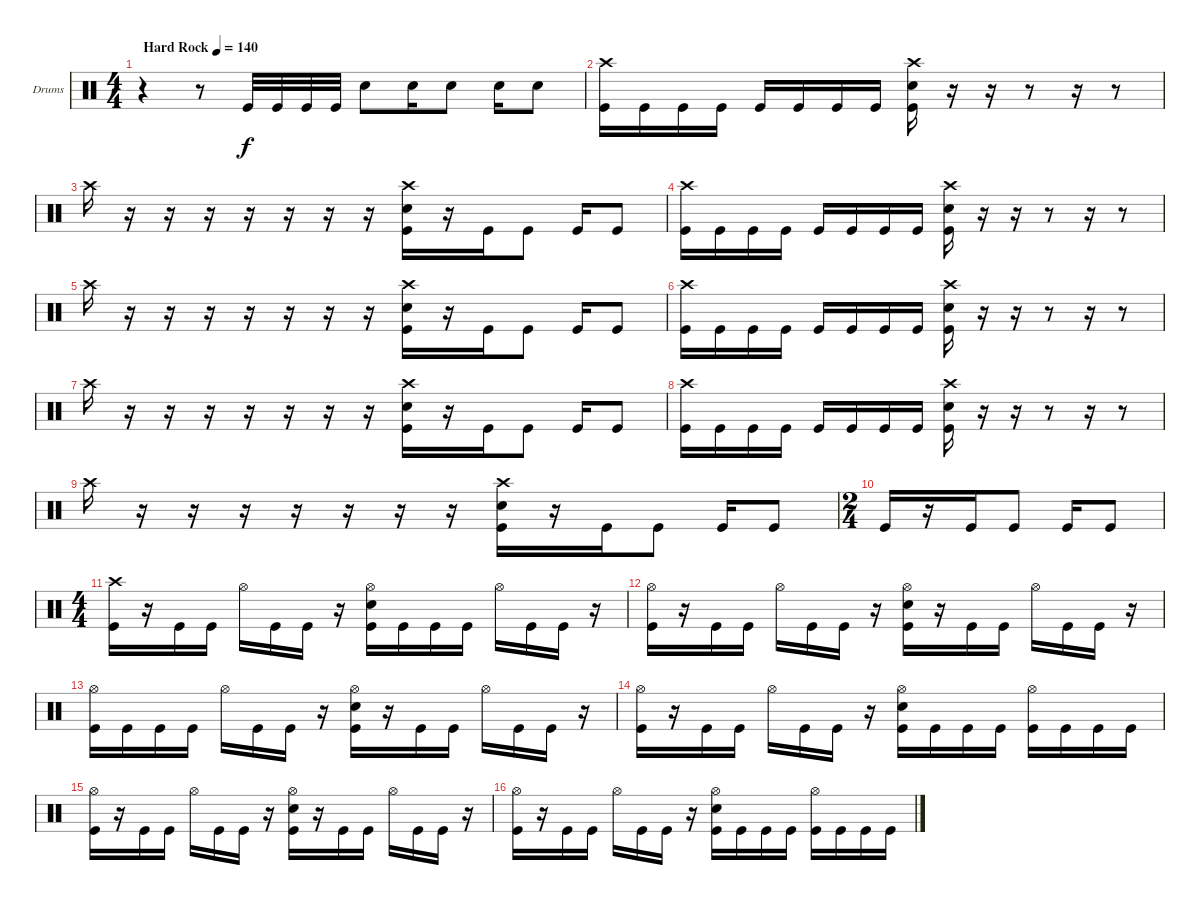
\bracketExtendMode groupsimilarinstruments
\firstSystemTrackNameOrientation horizontal
\otherSystemsTrackNameOrientation horizontal
\track ("Drumkit" "Drums") {instrument percussion}
\staff {score}
\articulation defaults
\ts (4 4)
\beaming (8 2 2 2 2)
\tempo (140 "Hard Rock")
\clef neutral
\ks c
r.4{dy f} r.8 "Kick (hit)".32 "Kick (hit)".32 "Kick (hit)".32 "Kick (hit)".32 "Snare (hit) 2".8 "Snare (hit) 2".16 "Snare (hit) 2".8 "Snare (hit) 2".16 "Snare (hit) 2".8 |
("Crash high (hit)" "Kick (hit)").16 "Kick (hit)".16 "Kick (hit)".16 "Kick (hit)".16 "Kick (hit)".16 "Kick (hit)".16 "Kick (hit)".16 "Kick (hit)".16 ("Crash high (hit)" "Snare (hit) 2" "Kick (hit)").16 r.16 r.16 r.8 r.16 r.8 |
"Crash high (hit)".16 r.16 r.16 r.16 r.16 r.16 r.16 r.16 ("Crash high (hit)" "Snare (hit) 2" "Kick (hit)").16 r.16 "Kick (hit)".16 "Kick (hit)".8 "Kick (hit)".16 "Kick (hit)".8 |
("Crash high (hit)" "Kick (hit)").16 "Kick (hit)".16 "Kick (hit)".16 "Kick (hit)".16 "Kick (hit)".16 "Kick (hit)".16 "Kick (hit)".16 "Kick (hit)".16 ("Crash high (hit)" "Snare (hit) 2" "Kick (hit)").16 r.16 r.16 r.8 r.16 r.8 |
"Crash high (hit)".16 r.16 r.16 r.16 r.16 r.16 r.16 r.16 ("Crash high (hit)" "Snare (hit) 2" "Kick (hit)").16 r.16 "Kick (hit)".16 "Kick (hit)".8 "Kick (hit)".16 "Kick (hit)".8 |
("Crash high (hit)" "Kick (hit)").16 "Kick (hit)".16 "Kick (hit)".16 "Kick (hit)".16 "Kick (hit)".16 "Kick (hit)".16 "Kick (hit)".16 "Kick (hit)".16 ("Crash high (hit)" "Snare (hit) 2" "Kick (hit)").16 r.16 r.16 r.8 r.16 r.8 |
"Crash high (hit)".16 r.16 r.16 r.16 r.16 r.16 r.16 r.16 ("Crash high (hit)" "Snare (hit) 2" "Kick (hit)").16 r.16 "Kick (hit)".16 "Kick (hit)".8 "Kick (hit)".16 "Kick (hit)".8 |
("Crash high (hit)" "Kick (hit)").16 "Kick (hit)".16 "Kick (hit)".16 "Kick (hit)".16 "Kick (hit)".16 "Kick (hit)".16 "Kick (hit)".16 "Kick (hit)".16 ("Crash high (hit)" "Snare (hit) 2" "Kick (hit)").16 r.16 r.16 r.8 r.16 r.8 |
"Crash high (hit)".16 r.16 r.16 r.16 r.16 r.16 r.16 r.16 ("Crash high (hit)" "Snare (hit) 2" "Kick (hit)").16 r.16 "Kick (hit)".16 "Kick (hit)".8 "Kick (hit)".16 "Kick (hit)".8 |
\ts (2 4)
\beaming (8 2 2)
"Kick (hit)".16 r.16 "Kick (hit)".16 "Kick (hit)".8 "Kick (hit)".16 "Kick (hit)".8 |
\ts (4 4)
\beaming (8 2 2 2 2)
("Crash high (hit)" "Kick (hit)").16 r.16 "Kick (hit)".16 "Kick (hit)".16 "Hi-Hat (open)".16 "Kick (hit)".16 "Kick (hit)".16 r.16 ("Hi-Hat (open)" "Snare (hit) 2" "Kick (hit)").16 "Kick (hit)".16 "Kick (hit)".16 "Kick (hit)".16 "Hi-Hat (open)".16 "Kick (hit)".16 "Kick (hit)".16 r.16 |
("Hi-Hat (open)" "Kick (hit)").16 r.16 "Kick (hit)".16 "Kick (hit)".16 "Hi-Hat (open)".16 "Kick (hit)".16 "Kick (hit)".16 r.16 ("Hi-Hat (open)" "Snare (hit) 2" "Kick (hit)").16 r.16 "Kick (hit)".16 "Kick (hit)".16 "Hi-Hat (open)".16 "Kick (hit)".16 "Kick (hit)".16 r.16 |
("Hi-Hat (open)" "Kick (hit)").16 "Kick (hit)".16 "Kick (hit)".16 "Kick (hit)".16 "Hi-Hat (open)".16 "Kick (hit)".16 "Kick (hit)".16 r.16 ("Hi-Hat (open)" "Snare (hit) 2" "Kick (hit)").16 r.16 "Kick (hit)".16 "Kick (hit)".16 "Hi-Hat (open)".16 "Kick (hit)".16 "Kick (hit)".16 r.16 |
("Hi-Hat (open)" "Kick (hit)").16 r.16 "Kick (hit)".16 "Kick (hit)".16 "Hi-Hat (open)".16 "Kick (hit)".16 "Kick (hit)".16 r.16 ("Hi-Hat (open)" "Snare (hit) 2" "Kick (hit)").16 "Kick (hit)".16 "Kick (hit)".16 "Kick (hit)".16 ("Hi-Hat (open)" "Kick (hit)").16 "Kick (hit)".16 "Kick (hit)".16 "Kick (hit)".16 |
("Hi-Hat (open)" "Kick (hit)").16 r.16 "Kick (hit)".16 "Kick (hit)".16 "Hi-Hat (open)".16 "Kick (hit)".16 "Kick (hit)".16 r.16 ("Hi-Hat (open)" "Snare (hit) 2" "Kick (hit)").16 r.16 "Kick (hit)".16 "Kick (hit)".16 "Hi-Hat (open)".16 "Kick (hit)".16 "Kick (hit)".16 r.16 |
("Hi-Hat (open)" "Kick (hit)").16 r.16 "Kick (hit)".16 "Kick (hit)".16 "Hi-Hat (open)".16 "Kick (hit)".16 "Kick (hit)".16 r.16 ("Hi-Hat (open)" "Snare (hit) 2" "Kick (hit)").16 "Kick (hit)".16 "Kick (hit)".16 "Kick (hit)".16 ("Hi-Hat (open)" "Kick (hit)").16 "Kick (hit)".16 "Kick (hit)".16 "Kick (hit)".16
